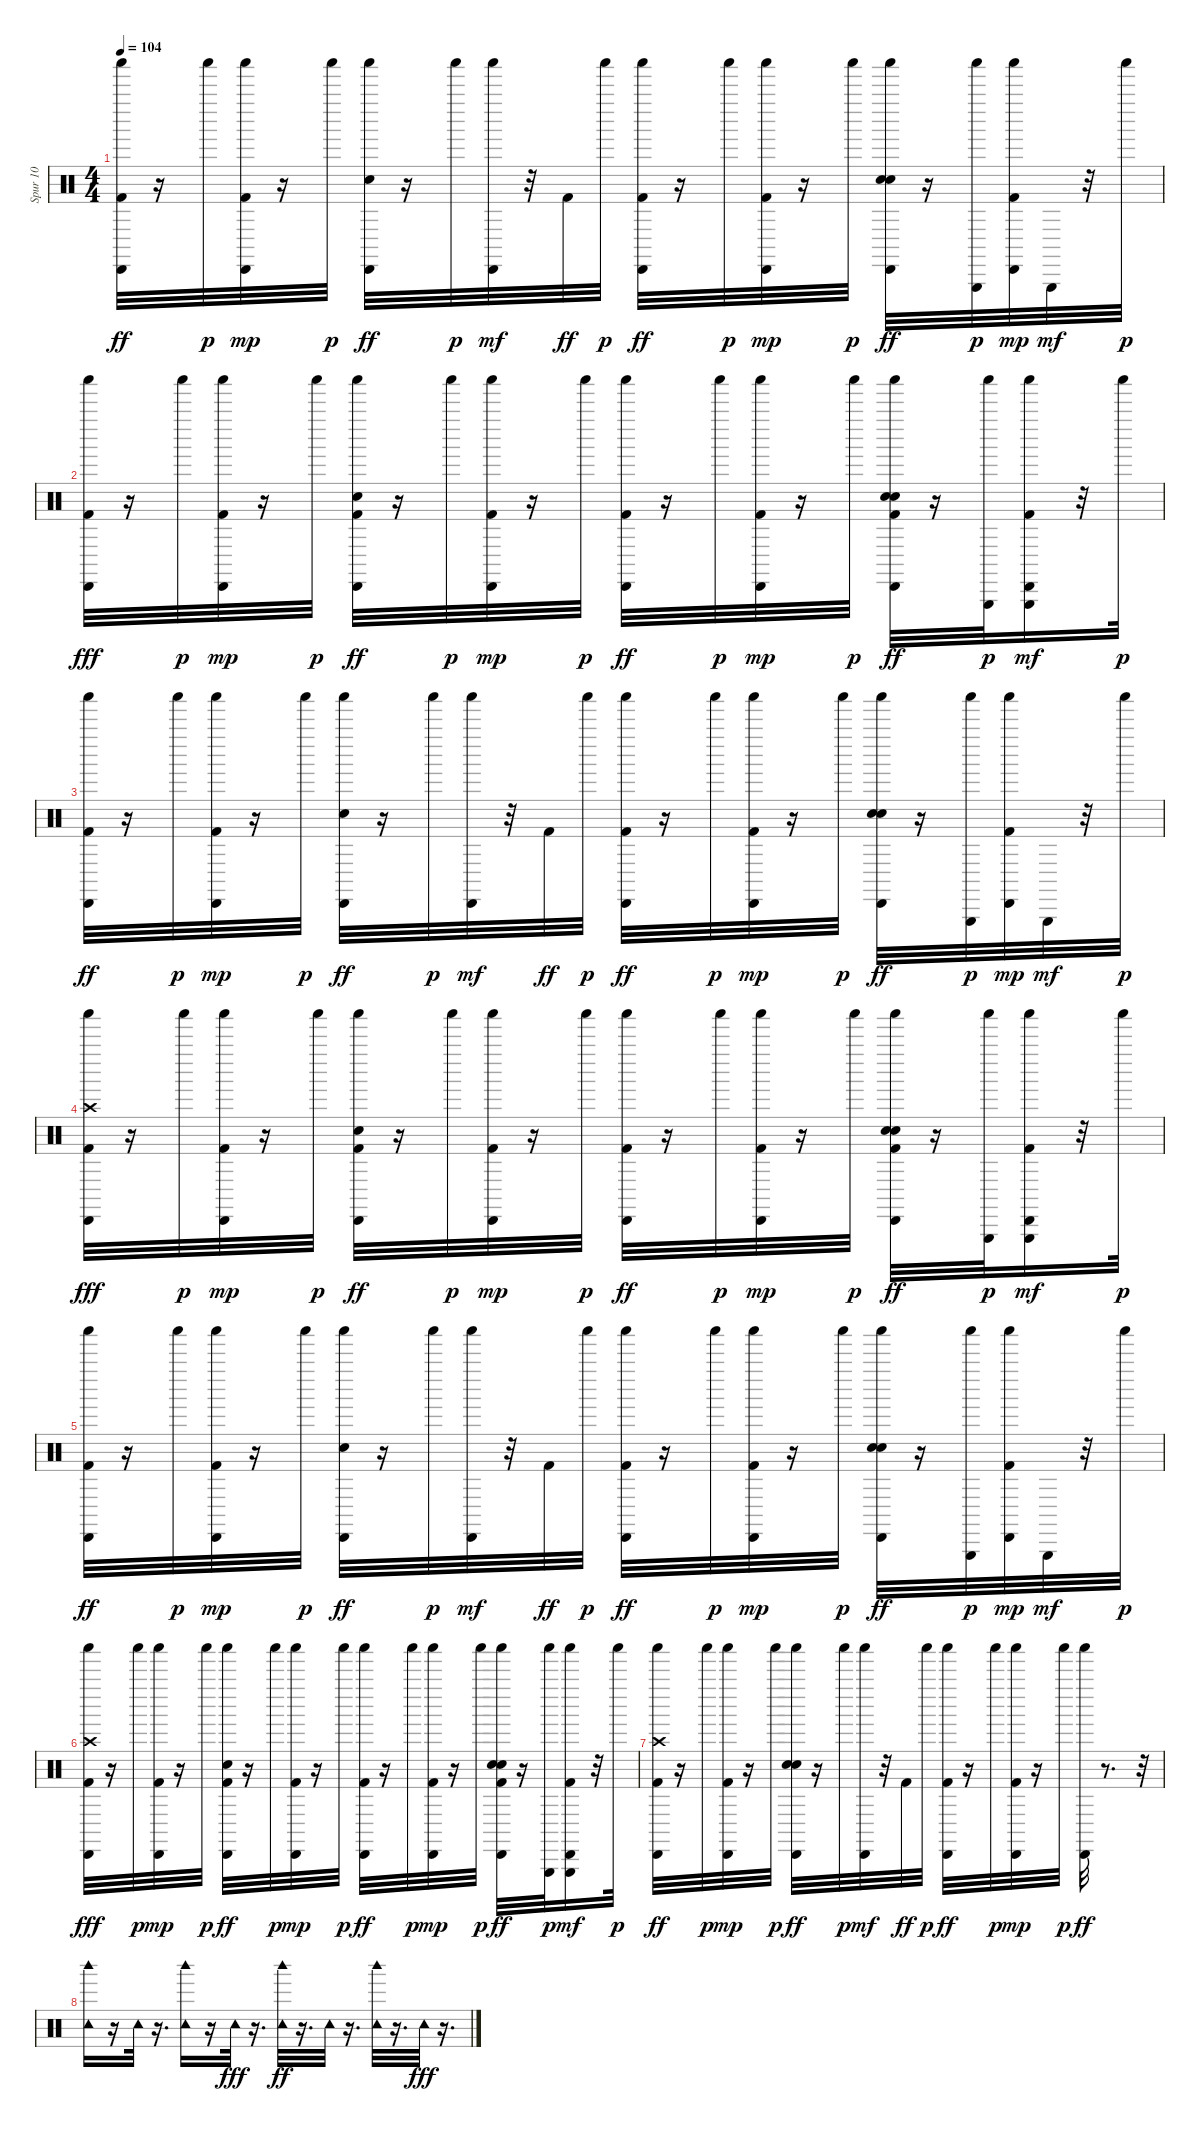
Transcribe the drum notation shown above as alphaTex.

\track ("Spur 10" "Spur 10") {instrument percussion}
\staff {score}
\articulation defaults
\ts (4 4)
\tempo 104
\clef neutral
\ks c
("Kick (hit) 2" "Cabasa (hit)" "Shaker (hit)").32{dy ff} r.16 "Shaker (hit)".32{dy p} ("Kick (hit) 2" "Cabasa (hit)" "Shaker (hit)").32{dy mp} r.16 "Shaker (hit)".32{dy p} ("Snare (hit) 2" "Cabasa (hit)" "Shaker (hit)").32{dy ff} r.16 "Shaker (hit)".32{dy p} ("Cabasa (hit)" "Shaker (hit)").32{dy mf} r.32 "Kick (hit) 2".32{dy ff} "Shaker (hit)".32{dy p} ("Kick (hit) 2" "Cabasa (hit)" "Shaker (hit)").32{dy ff} r.16 "Shaker (hit)".32{dy p} ("Kick (hit) 2" "Cabasa (hit)" "Shaker (hit)").32{dy mp} r.16 "Shaker (hit)".32{dy p} ("Snare (hit) 2" "Hand Clap (hit)" "Cabasa (hit)" "Shaker (hit)").32{dy ff} r.16 ("Shaker (hit)" "Triangle (hit)").32{dy p} ("Kick (hit) 2" "Cabasa (hit)" "Shaker (hit)").32{dy mp} "Triangle (hit)".32{dy mf} r.32 "Shaker (hit)".32{dy p} |
("Kick (hit) 2" "Cabasa (hit)" "Shaker (hit)").32{dy fff} r.16 "Shaker (hit)".32{dy p} ("Kick (hit) 2" "Cabasa (hit)" "Shaker (hit)").32{dy mp} r.16 "Shaker (hit)".32{dy p} ("Kick (hit) 2" "Snare (hit) 2" "Cabasa (hit)" "Shaker (hit)").32{dy ff} r.16 "Shaker (hit)".32{dy p} ("Kick (hit) 2" "Cabasa (hit)" "Shaker (hit)").32{dy mp} r.16 "Shaker (hit)".32{dy p} ("Kick (hit) 2" "Cabasa (hit)" "Shaker (hit)").32{dy ff} r.16 "Shaker (hit)".32{dy p} ("Kick (hit) 2" "Cabasa (hit)" "Shaker (hit)").32{dy mp} r.16 "Shaker (hit)".32{dy p} ("Kick (hit) 2" "Snare (hit) 2" "Hand Clap (hit)" "Cabasa (hit)" "Shaker (hit)").32{dy ff} r.16 ("Triangle (hit)" "Shaker (hit)").32{dy p} ("Kick (hit) 2" "Cabasa (hit)" "Shaker (hit)" "Triangle (hit)").16{dy mf} r.32 "Shaker (hit)".32{dy p} |
("Kick (hit) 2" "Cabasa (hit)" "Shaker (hit)").32{dy ff} r.16 "Shaker (hit)".32{dy p} ("Kick (hit) 2" "Cabasa (hit)" "Shaker (hit)").32{dy mp} r.16 "Shaker (hit)".32{dy p} ("Snare (hit) 2" "Cabasa (hit)" "Shaker (hit)").32{dy ff} r.16 "Shaker (hit)".32{dy p} ("Cabasa (hit)" "Shaker (hit)").32{dy mf} r.32 "Kick (hit) 2".32{dy ff} "Shaker (hit)".32{dy p} ("Kick (hit) 2" "Cabasa (hit)" "Shaker (hit)").32{dy ff} r.16 "Shaker (hit)".32{dy p} ("Kick (hit) 2" "Cabasa (hit)" "Shaker (hit)").32{dy mp} r.16 "Shaker (hit)".32{dy p} ("Snare (hit) 2" "Hand Clap (hit)" "Cabasa (hit)" "Shaker (hit)").32{dy ff} r.16 ("Shaker (hit)" "Triangle (hit)").32{dy p} ("Kick (hit) 2" "Cabasa (hit)" "Shaker (hit)").32{dy mp} "Triangle (hit)".32{dy mf} r.32 "Shaker (hit)".32{dy p} |
("Crash high (hit)" "Kick (hit) 2" "Cabasa (hit)" "Shaker (hit)").32{dy fff} r.16 "Shaker (hit)".32{dy p} ("Kick (hit) 2" "Cabasa (hit)" "Shaker (hit)").32{dy mp} r.16 "Shaker (hit)".32{dy p} ("Kick (hit) 2" "Snare (hit) 2" "Cabasa (hit)" "Shaker (hit)").32{dy ff} r.16 "Shaker (hit)".32{dy p} ("Kick (hit) 2" "Cabasa (hit)" "Shaker (hit)").32{dy mp} r.16 "Shaker (hit)".32{dy p} ("Kick (hit) 2" "Cabasa (hit)" "Shaker (hit)").32{dy ff} r.16 "Shaker (hit)".32{dy p} ("Kick (hit) 2" "Cabasa (hit)" "Shaker (hit)").32{dy mp} r.16 "Shaker (hit)".32{dy p} ("Kick (hit) 2" "Snare (hit) 2" "Hand Clap (hit)" "Cabasa (hit)" "Shaker (hit)").32{dy ff} r.16 ("Triangle (hit)" "Shaker (hit)").32{dy p} ("Kick (hit) 2" "Cabasa (hit)" "Shaker (hit)" "Triangle (hit)").16{dy mf} r.32 "Shaker (hit)".32{dy p} |
("Kick (hit) 2" "Cabasa (hit)" "Shaker (hit)").32{dy ff} r.16 "Shaker (hit)".32{dy p} ("Kick (hit) 2" "Cabasa (hit)" "Shaker (hit)").32{dy mp} r.16 "Shaker (hit)".32{dy p} ("Snare (hit) 2" "Cabasa (hit)" "Shaker (hit)").32{dy ff} r.16 "Shaker (hit)".32{dy p} ("Cabasa (hit)" "Shaker (hit)").32{dy mf} r.32 "Kick (hit) 2".32{dy ff} "Shaker (hit)".32{dy p} ("Kick (hit) 2" "Cabasa (hit)" "Shaker (hit)").32{dy ff} r.16 "Shaker (hit)".32{dy p} ("Kick (hit) 2" "Cabasa (hit)" "Shaker (hit)").32{dy mp} r.16 "Shaker (hit)".32{dy p} ("Snare (hit) 2" "Hand Clap (hit)" "Cabasa (hit)" "Shaker (hit)").32{dy ff} r.16 ("Shaker (hit)" "Triangle (hit)").32{dy p} ("Kick (hit) 2" "Cabasa (hit)" "Shaker (hit)").32{dy mp} "Triangle (hit)".32{dy mf} r.32 "Shaker (hit)".32{dy p} |
("Crash high (hit)" "Kick (hit) 2" "Cabasa (hit)" "Shaker (hit)").32{dy fff} r.16 "Shaker (hit)".32{dy p} ("Kick (hit) 2" "Cabasa (hit)" "Shaker (hit)").32{dy mp} r.16 "Shaker (hit)".32{dy p} ("Kick (hit) 2" "Snare (hit) 2" "Cabasa (hit)" "Shaker (hit)").32{dy ff} r.16 "Shaker (hit)".32{dy p} ("Kick (hit) 2" "Cabasa (hit)" "Shaker (hit)").32{dy mp} r.16 "Shaker (hit)".32{dy p} ("Kick (hit) 2" "Cabasa (hit)" "Shaker (hit)").32{dy ff} r.16 "Shaker (hit)".32{dy p} ("Kick (hit) 2" "Cabasa (hit)" "Shaker (hit)").32{dy mp} r.16 "Shaker (hit)".32{dy p} ("Kick (hit) 2" "Snare (hit) 2" "Hand Clap (hit)" "Cabasa (hit)" "Shaker (hit)").32{dy ff} r.16 ("Triangle (hit)" "Shaker (hit)").32{dy p} ("Kick (hit) 2" "Cabasa (hit)" "Shaker (hit)" "Triangle (hit)").16{dy mf} r.32 "Shaker (hit)".32{dy p} |
("Crash high (hit)" "Kick (hit) 2" "Cabasa (hit)" "Shaker (hit)").32{dy ff} r.16 "Shaker (hit)".32{dy p} ("Kick (hit) 2" "Cabasa (hit)" "Shaker (hit)").32{dy mp} r.16 "Shaker (hit)".32{dy p} ("Hand Clap (hit)" "Snare (hit) 2" "Cabasa (hit)" "Shaker (hit)").32{dy ff} r.16 "Shaker (hit)".32{dy p} ("Cabasa (hit)" "Shaker (hit)").32{dy mf} r.32 "Kick (hit) 2".32{dy ff} "Shaker (hit)".32{dy p} ("Kick (hit) 2" "Cabasa (hit)" "Shaker (hit)").32{dy ff} r.16 "Shaker (hit)".32{dy p} ("Kick (hit) 2" "Cabasa (hit)" "Shaker (hit)").32{dy mp} r.16 "Shaker (hit)".32{dy p} ("Cabasa (hit)" "Shaker (hit)").32{dy ff} r.8{d} r.32 |
("Tambourine (hit)" "Woodblock high (hit)").16 r.16 "Tambourine (hit)".32 r.16{d} ("Tambourine (hit)" "Woodblock high (hit)").16 r.16 "Tambourine (hit)".32{dy fff} r.16{d} ("Woodblock high (hit)" "Tambourine (hit)").32{dy ff} r.16{d} "Tambourine (hit)".32 r.16{d} ("Woodblock high (hit)" "Tambourine (hit)").32 r.16{d} "Tambourine (hit)".32{dy fff} r.16{d}
